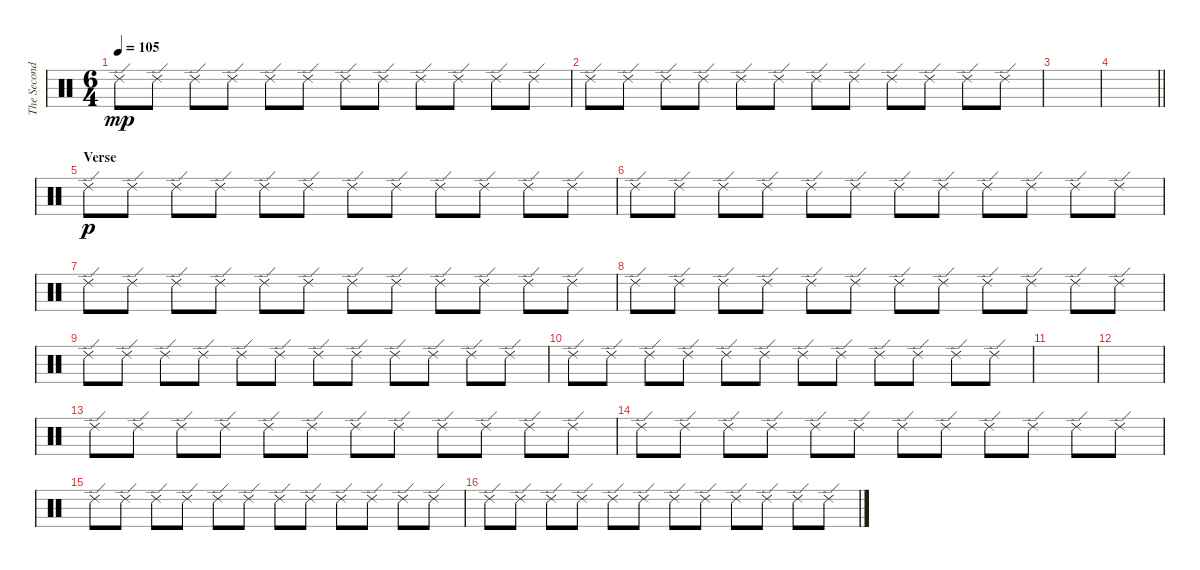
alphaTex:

\track ("The Second Drummer" "The Second") {instrument percussion}
\staff {score}
\articulation defaults
\ts (6 4)
\tempo 105
\clef neutral
\ks c "Ride (edge) 2".8{dy mp} "Ride (edge) 2".8 "Ride (edge) 2".8 "Ride (edge) 2".8 "Ride (edge) 2".8 "Ride (edge) 2".8 "Ride (edge) 2".8 "Ride (edge) 2".8 "Ride (edge) 2".8 "Ride (edge) 2".8 "Ride (edge) 2".8 "Ride (edge) 2".8
|
"Ride (edge) 2".8 "Ride (edge) 2".8 "Ride (edge) 2".8 "Ride (edge) 2".8 "Ride (edge) 2".8 "Ride (edge) 2".8 "Ride (edge) 2".8 "Ride (edge) 2".8 "Ride (edge) 2".8 "Ride (edge) 2".8 "Ride (edge) 2".8 "Ride (edge) 2".8 |
|
\barLineRight lightlight
|
\section ("" "Verse")
"Ride (edge) 2".8{dy p} "Ride (edge) 2".8 "Ride (edge) 2".8 "Ride (edge) 2".8 "Ride (edge) 2".8 "Ride (edge) 2".8 "Ride (edge) 2".8 "Ride (edge) 2".8 "Ride (edge) 2".8 "Ride (edge) 2".8 "Ride (edge) 2".8 "Ride (edge) 2".8 |
"Ride (edge) 2".8 "Ride (edge) 2".8 "Ride (edge) 2".8 "Ride (edge) 2".8 "Ride (edge) 2".8 "Ride (edge) 2".8 "Ride (edge) 2".8 "Ride (edge) 2".8 "Ride (edge) 2".8 "Ride (edge) 2".8 "Ride (edge) 2".8 "Ride (edge) 2".8 |
"Ride (edge) 2".8 "Ride (edge) 2".8 "Ride (edge) 2".8 "Ride (edge) 2".8 "Ride (edge) 2".8 "Ride (edge) 2".8 "Ride (edge) 2".8 "Ride (edge) 2".8 "Ride (edge) 2".8 "Ride (edge) 2".8 "Ride (edge) 2".8 "Ride (edge) 2".8 |
"Ride (edge) 2".8 "Ride (edge) 2".8 "Ride (edge) 2".8 "Ride (edge) 2".8 "Ride (edge) 2".8 "Ride (edge) 2".8 "Ride (edge) 2".8 "Ride (edge) 2".8 "Ride (edge) 2".8 "Ride (edge) 2".8 "Ride (edge) 2".8 "Ride (edge) 2".8 |
"Ride (edge) 2".8 "Ride (edge) 2".8 "Ride (edge) 2".8 "Ride (edge) 2".8 "Ride (edge) 2".8 "Ride (edge) 2".8 "Ride (edge) 2".8 "Ride (edge) 2".8 "Ride (edge) 2".8 "Ride (edge) 2".8 "Ride (edge) 2".8 "Ride (edge) 2".8 |
"Ride (edge) 2".8 "Ride (edge) 2".8 "Ride (edge) 2".8 "Ride (edge) 2".8 "Ride (edge) 2".8 "Ride (edge) 2".8 "Ride (edge) 2".8 "Ride (edge) 2".8 "Ride (edge) 2".8 "Ride (edge) 2".8 "Ride (edge) 2".8 "Ride (edge) 2".8 |
|
|
"Ride (edge) 2".8 "Ride (edge) 2".8 "Ride (edge) 2".8 "Ride (edge) 2".8 "Ride (edge) 2".8 "Ride (edge) 2".8 "Ride (edge) 2".8 "Ride (edge) 2".8 "Ride (edge) 2".8 "Ride (edge) 2".8 "Ride (edge) 2".8 "Ride (edge) 2".8 |
"Ride (edge) 2".8 "Ride (edge) 2".8 "Ride (edge) 2".8 "Ride (edge) 2".8 "Ride (edge) 2".8 "Ride (edge) 2".8 "Ride (edge) 2".8 "Ride (edge) 2".8 "Ride (edge) 2".8 "Ride (edge) 2".8 "Ride (edge) 2".8 "Ride (edge) 2".8 |
"Ride (edge) 2".8 "Ride (edge) 2".8 "Ride (edge) 2".8 "Ride (edge) 2".8 "Ride (edge) 2".8 "Ride (edge) 2".8 "Ride (edge) 2".8 "Ride (edge) 2".8 "Ride (edge) 2".8 "Ride (edge) 2".8 "Ride (edge) 2".8 "Ride (edge) 2".8 |
"Ride (edge) 2".8 "Ride (edge) 2".8 "Ride (edge) 2".8 "Ride (edge) 2".8 "Ride (edge) 2".8 "Ride (edge) 2".8 "Ride (edge) 2".8 "Ride (edge) 2".8 "Ride (edge) 2".8 "Ride (edge) 2".8 "Ride (edge) 2".8 "Ride (edge) 2".8
